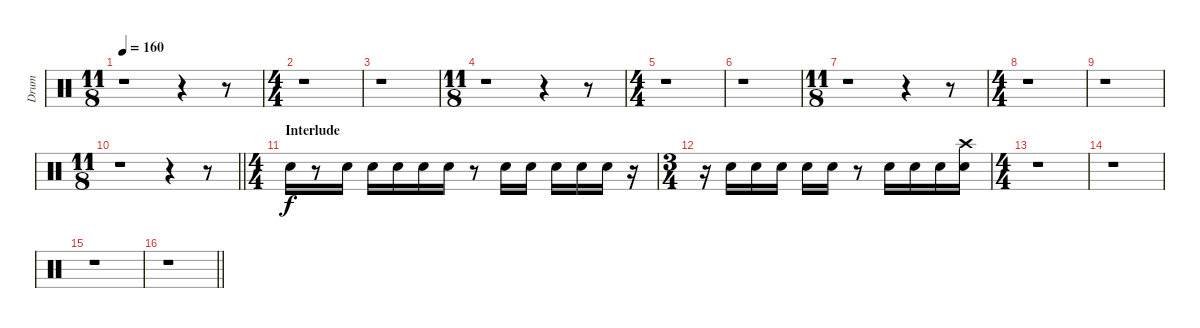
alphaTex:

\track ("Drum" "Drum") {instrument percussion}
\staff {score}
\articulation defaults
\ts (11 8)
\tempo 160
\clef neutral
\ks c
r.1{dy f} r.4 r.8 |
\ts (4 4)
r.1 |
r.1 |
\ts (11 8)
r.1 r.4 r.8 |
\ts (4 4)
r.1 |
r.1 |
\ts (11 8)
r.1 r.4 r.8 |
\ts (4 4)
r.1 |
r.1 |
\ts (11 8)
\barLineRight lightlight
r.1 r.4 r.8 |
\ts (4 4)
\section ("" "Interlude")
"Snare (hit) 2".16 r.8 "Snare (hit) 2".16 "Snare (hit) 2".16 "Snare (hit) 2".16 "Snare (hit) 2".16 "Snare (hit) 2".16 r.8 "Snare (hit) 2".16 "Snare (hit) 2".16 "Snare (hit) 2".16 "Snare (hit) 2".16 "Snare (hit) 2".16 r.16 |
\ts (3 4)
r.16 "Snare (hit) 2".16 "Snare (hit) 2".16 "Snare (hit) 2".16 "Snare (hit) 2".16 "Snare (hit) 2".16 r.8 "Snare (hit) 2".16 "Snare (hit) 2".16 "Snare (hit) 2".16 ("Crash high (hit)" "Snare (hit) 2").16 |
\ts (4 4)
r.1 |
r.1 |
r.1 |
\barLineRight lightlight
r.1
